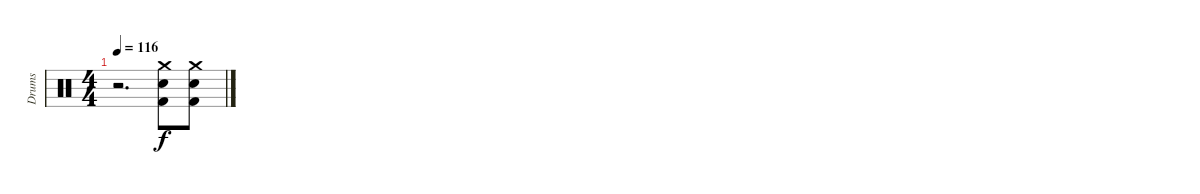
\track ("Drums" "Drums") {instrument percussion}
\staff {score}
\articulation defaults
\ts (4 4)
\tempo 116
\clef neutral
\ks c
r.2{d dy f} ("Crash medium (hit)" "Electric Snare (hit)" "Kick (hit) 2").8 ("Crash medium (hit)" "Electric Snare (hit)" "Kick (hit) 2").8
